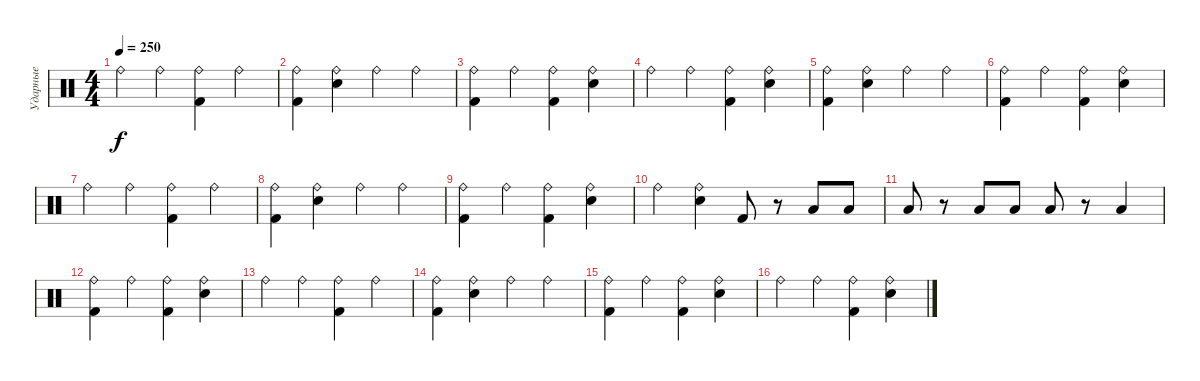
\track ("Ударные" "Ударные") {instrument percussion}
\staff {score}
\articulation defaults
\ts (4 4)
\tempo 250
\clef neutral
\ks c "Ride (bell)".4{dy f} "Ride (bell)".4
("Ride (bell)" "Kick (hit) 2").4 "Ride (bell)".4 |
("Ride (bell)" "Kick (hit) 2").4 ("Snare (hit) 2" "Ride (bell)").4 "Ride (bell)".4 "Ride (bell)".4 |
("Ride (bell)" "Kick (hit) 2").4 "Ride (bell)".4 ("Ride (bell)" "Kick (hit) 2").4 ("Snare (hit) 2" "Ride (bell)").4 |
"Ride (bell)".4 "Ride (bell)".4 ("Ride (bell)" "Kick (hit) 2").4 ("Snare (hit) 2" "Ride (bell)").4 |
("Ride (bell)" "Kick (hit) 2").4 ("Snare (hit) 2" "Ride (bell)").4 "Ride (bell)".4 "Ride (bell)".4 |
("Ride (bell)" "Kick (hit) 2").4 "Ride (bell)".4 ("Ride (bell)" "Kick (hit) 2").4 ("Snare (hit) 2" "Ride (bell)").4 |
"Ride (bell)".4 "Ride (bell)".4 ("Ride (bell)" "Kick (hit) 2").4 "Ride (bell)".4 |
("Ride (bell)" "Kick (hit) 2").4 ("Snare (hit) 2" "Ride (bell)").4 "Ride (bell)".4 "Ride (bell)".4 |
("Ride (bell)" "Kick (hit) 2").4 "Ride (bell)".4 ("Ride (bell)" "Kick (hit) 2").4 ("Snare (hit) 2" "Ride (bell)").4 |
"Ride (bell)".4 ("Snare (hit) 2" "Ride (bell)").4 "Kick (hit) 2".8 r.8 "Low Tom (hit)".8 "Low Tom (hit)".8 |
"Low Tom (hit)".8 r.8 "Low Tom (hit)".8 "Low Tom (hit)".8 "Low Tom (hit)".8 r.8 "Low Tom (hit)".4 |
("Ride (bell)" "Kick (hit) 2").4 "Ride (bell)".4 ("Ride (bell)" "Kick (hit) 2").4 ("Snare (hit) 2" "Ride (bell)").4 |
"Ride (bell)".4 "Ride (bell)".4 ("Ride (bell)" "Kick (hit) 2").4 "Ride (bell)".4 |
("Ride (bell)" "Kick (hit) 2").4 ("Snare (hit) 2" "Ride (bell)").4 "Ride (bell)".4 "Ride (bell)".4 |
("Ride (bell)" "Kick (hit) 2").4 "Ride (bell)".4 ("Ride (bell)" "Kick (hit) 2").4 ("Snare (hit) 2" "Ride (bell)").4 |
"Ride (bell)".4 "Ride (bell)".4 ("Ride (bell)" "Kick (hit) 2").4 ("Snare (hit) 2" "Ride (bell)").4
